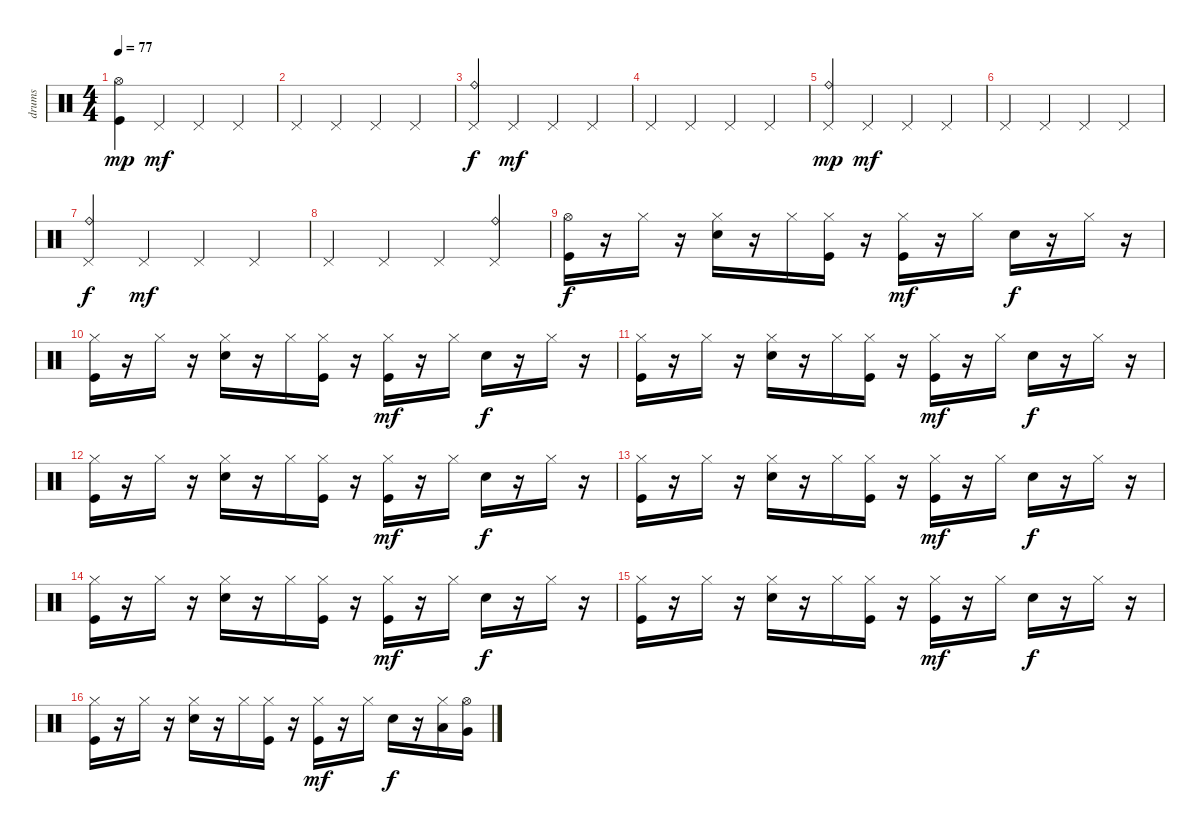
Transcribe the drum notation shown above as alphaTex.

\track ("drums" "drums") {instrument percussion}
\staff {score}
\articulation defaults
\ts (4 4)
\tempo 77
\clef neutral
\ks c
("Hi-Hat (open)" "Kick (hit)").4{dy mp} "Pedal Hi-Hat (hit)".4{dy mf} "Pedal Hi-Hat (hit)".4 "Pedal Hi-Hat (hit)".4 |
"Pedal Hi-Hat (hit)".4 "Pedal Hi-Hat (hit)".4 "Pedal Hi-Hat (hit)".4 "Pedal Hi-Hat (hit)".4 |
("Pedal Hi-Hat (hit)" "Ride (bell)").4{dy f} "Pedal Hi-Hat (hit)".4{dy mf} "Pedal Hi-Hat (hit)".4 "Pedal Hi-Hat (hit)".4 |
"Pedal Hi-Hat (hit)".4 "Pedal Hi-Hat (hit)".4 "Pedal Hi-Hat (hit)".4 "Pedal Hi-Hat (hit)".4 |
("Ride (bell)" "Pedal Hi-Hat (hit)").4{dy mp} "Pedal Hi-Hat (hit)".4{dy mf} "Pedal Hi-Hat (hit)".4 "Pedal Hi-Hat (hit)".4 |
"Pedal Hi-Hat (hit)".4 "Pedal Hi-Hat (hit)".4 "Pedal Hi-Hat (hit)".4 "Pedal Hi-Hat (hit)".4 |
("Pedal Hi-Hat (hit)" "Ride (bell)").4{dy f} "Pedal Hi-Hat (hit)".4{dy mf} "Pedal Hi-Hat (hit)".4 "Pedal Hi-Hat (hit)".4 |
"Pedal Hi-Hat (hit)".4 "Pedal Hi-Hat (hit)".4 "Pedal Hi-Hat (hit)".4 ("Pedal Hi-Hat (hit)" "Ride (bell)").4 |
("Hi-Hat (open)" "Kick (hit)").16{dy f} r.16 "Hi-Hat (closed)".16 r.16 ("Snare (hit) 2" "Hi-Hat (closed)").16 r.16 "Hi-Hat (closed)".16 ("Kick (hit)" "Hi-Hat (closed)").16 r.16 ("Kick (hit)" "Hi-Hat (closed)").16{dy mf} r.16 "Hi-Hat (closed)".16 "Snare (hit) 2".16{dy f} r.16 "Hi-Hat (closed)".16 r.16 |
("Hi-Hat (closed)" "Kick (hit)").16 r.16 "Hi-Hat (closed)".16 r.16 ("Snare (hit) 2" "Hi-Hat (closed)").16 r.16 "Hi-Hat (closed)".16 ("Kick (hit)" "Hi-Hat (closed)").16 r.16 ("Kick (hit)" "Hi-Hat (closed)").16{dy mf} r.16 "Hi-Hat (closed)".16 "Snare (hit) 2".16{dy f} r.16 "Hi-Hat (closed)".16 r.16 |
("Hi-Hat (closed)" "Kick (hit)").16 r.16 "Hi-Hat (closed)".16 r.16 ("Snare (hit) 2" "Hi-Hat (closed)").16 r.16 "Hi-Hat (closed)".16 ("Kick (hit)" "Hi-Hat (closed)").16 r.16 ("Kick (hit)" "Hi-Hat (closed)").16{dy mf} r.16 "Hi-Hat (closed)".16 "Snare (hit) 2".16{dy f} r.16 "Hi-Hat (closed)".16 r.16 |
("Hi-Hat (closed)" "Kick (hit)").16 r.16 "Hi-Hat (closed)".16 r.16 ("Snare (hit) 2" "Hi-Hat (closed)").16 r.16 "Hi-Hat (closed)".16 ("Kick (hit)" "Hi-Hat (closed)").16 r.16 ("Kick (hit)" "Hi-Hat (closed)").16{dy mf} r.16 "Hi-Hat (closed)".16 "Snare (hit) 2".16{dy f} r.16 "Hi-Hat (closed)".16 r.16 |
("Hi-Hat (closed)" "Kick (hit)").16 r.16 "Hi-Hat (closed)".16 r.16 ("Snare (hit) 2" "Hi-Hat (closed)").16 r.16 "Hi-Hat (closed)".16 ("Kick (hit)" "Hi-Hat (closed)").16 r.16 ("Kick (hit)" "Hi-Hat (closed)").16{dy mf} r.16 "Hi-Hat (closed)".16 "Snare (hit) 2".16{dy f} r.16 "Hi-Hat (closed)".16 r.16 |
("Hi-Hat (closed)" "Kick (hit)").16 r.16 "Hi-Hat (closed)".16 r.16 ("Snare (hit) 2" "Hi-Hat (closed)").16 r.16 "Hi-Hat (closed)".16 ("Kick (hit)" "Hi-Hat (closed)").16 r.16 ("Kick (hit)" "Hi-Hat (closed)").16{dy mf} r.16 "Hi-Hat (closed)".16 "Snare (hit) 2".16{dy f} r.16 "Hi-Hat (closed)".16 r.16 |
("Hi-Hat (closed)" "Kick (hit)").16 r.16 "Hi-Hat (closed)".16 r.16 ("Snare (hit) 2" "Hi-Hat (closed)").16 r.16 "Hi-Hat (closed)".16 ("Kick (hit)" "Hi-Hat (closed)").16 r.16 ("Kick (hit)" "Hi-Hat (closed)").16{dy mf} r.16 "Hi-Hat (closed)".16 "Snare (hit) 2".16{dy f} r.16 "Hi-Hat (closed)".16 r.16 |
("Hi-Hat (closed)" "Kick (hit)").16 r.16 "Hi-Hat (closed)".16 r.16 ("Snare (hit) 2" "Hi-Hat (closed)").16 r.16 "Hi-Hat (closed)".16 ("Kick (hit)" "Hi-Hat (closed)").16 r.16 ("Kick (hit)" "Hi-Hat (closed)").16{dy mf} r.16 "Hi-Hat (closed)".16 "Snare (hit) 2".16{dy f} r.16 ("Hi-Hat (closed)" "Low Floor Tom (hit)").16 ("Hi-Hat (open)" "Very Low Tom (hit)").16
